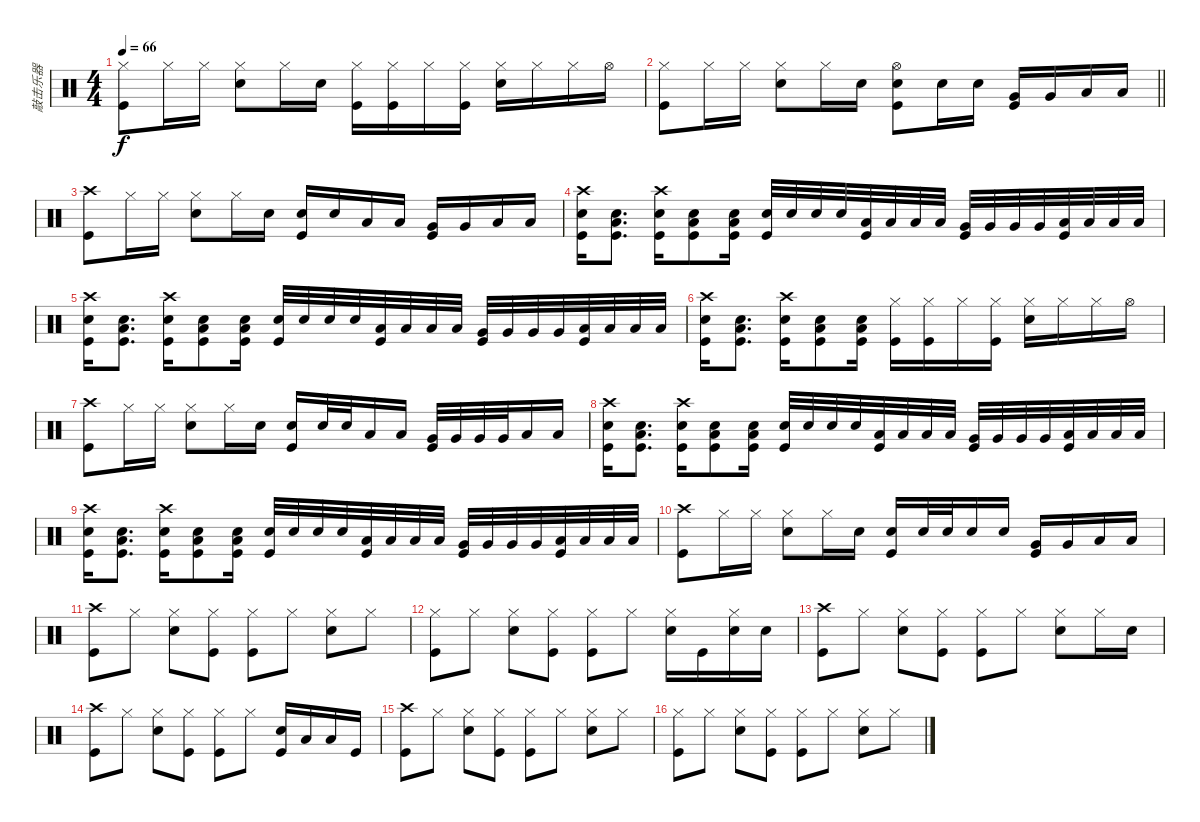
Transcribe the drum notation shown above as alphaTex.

\track ("敲击乐器" "敲击乐器") {instrument percussion}
\staff {score}
\articulation defaults
\ts (4 4)
\tempo 66
\clef neutral
\ks c
("Hi-Hat (closed)" "Kick (hit)").8{dy f} "Hi-Hat (closed)".16 "Hi-Hat (closed)".16 ("Snare (hit) 2" "Hi-Hat (closed)").8 "Hi-Hat (closed)".16 "Snare (hit) 2".16 ("Kick (hit)" "Hi-Hat (closed)").16 ("Kick (hit)" "Hi-Hat (closed)").16 "Hi-Hat (closed)".16 ("Kick (hit)" "Hi-Hat (closed)").16 ("Snare (hit) 2" "Hi-Hat (closed)").16 "Hi-Hat (closed)".16 "Hi-Hat (closed)".16 "Hi-Hat (open)".16 |
\barLineRight lightlight
("Hi-Hat (closed)" "Kick (hit)").8 "Hi-Hat (closed)".16 "Hi-Hat (closed)".16 ("Snare (hit) 2" "Hi-Hat (closed)").8 "Hi-Hat (closed)".16 "Snare (hit) 2".16 ("Snare (hit) 2" "Kick (hit)" "Hi-Hat (open)").8 "Snare (hit) 2".16 "Snare (hit) 2".16 ("Very Low Tom (hit)" "Kick (hit)").16 "Very Low Tom (hit)".16 "Low Floor Tom (hit)".16 "Low Floor Tom (hit)".16 |
("Crash high (hit)" "Kick (hit)").8 "Hi-Hat (closed)".16 "Hi-Hat (closed)".16 ("Snare (hit) 2" "Hi-Hat (closed)").8 "Hi-Hat (closed)".16 "Snare (hit) 2".16 ("Kick (hit)" "Snare (hit) 2").16 "Snare (hit) 2".16 "Low Tom (hit)".16 "Low Tom (hit)".16 ("Kick (hit)" "Very Low Tom (hit)").16 "Very Low Tom (hit)".16 "Low Floor Tom (hit)".16 "Low Floor Tom (hit)".16 |
("Kick (hit)" "Snare (hit) 2" "Crash high (hit)").16 ("Kick (hit)" "Snare (hit) 2" "Low Floor Tom (hit)").8{d} ("Kick (hit)" "Snare (hit) 2" "Crash high (hit)").16 ("Kick (hit)" "Snare (hit) 2" "Low Floor Tom (hit)").8 ("Kick (hit)" "Snare (hit) 2" "Low Floor Tom (hit)").16 ("Snare (hit) 2" "Kick (hit)").32 "Snare (hit) 2".32 "Snare (hit) 2".32 "Snare (hit) 2".32 ("Low Tom (hit)" "Kick (hit)").32 "Low Tom (hit)".32 "Low Tom (hit)".32 "Low Tom (hit)".32 ("Very Low Tom (hit)" "Kick (hit)").32 "Very Low Tom (hit)".32 "Very Low Tom (hit)".32 "Very Low Tom (hit)".32 ("Low Floor Tom (hit)" "Kick (hit)").32 "Low Floor Tom (hit)".32 "Low Floor Tom (hit)".32 "Low Floor Tom (hit)".32 |
("Kick (hit)" "Snare (hit) 2" "Crash high (hit)").16 ("Kick (hit)" "Snare (hit) 2" "Low Floor Tom (hit)").8{d} ("Kick (hit)" "Snare (hit) 2" "Crash high (hit)").16 ("Kick (hit)" "Snare (hit) 2" "Low Floor Tom (hit)").8 ("Kick (hit)" "Snare (hit) 2" "Low Floor Tom (hit)").16 ("Snare (hit) 2" "Kick (hit)").32 "Snare (hit) 2".32 "Snare (hit) 2".32 "Snare (hit) 2".32 ("Low Tom (hit)" "Kick (hit)").32 "Low Tom (hit)".32 "Low Tom (hit)".32 "Low Tom (hit)".32 ("Very Low Tom (hit)" "Kick (hit)").32 "Very Low Tom (hit)".32 "Very Low Tom (hit)".32 "Very Low Tom (hit)".32 ("Low Floor Tom (hit)" "Kick (hit)").32 "Low Floor Tom (hit)".32 "Low Floor Tom (hit)".32 "Low Floor Tom (hit)".32 |
("Kick (hit)" "Snare (hit) 2" "Crash high (hit)").16 ("Kick (hit)" "Snare (hit) 2" "Low Floor Tom (hit)").8{d} ("Kick (hit)" "Snare (hit) 2" "Crash high (hit)").16 ("Kick (hit)" "Snare (hit) 2" "Low Floor Tom (hit)").8 ("Kick (hit)" "Snare (hit) 2" "Low Floor Tom (hit)").16 ("Kick (hit)" "Hi-Hat (closed)").16 ("Kick (hit)" "Hi-Hat (closed)").16 "Hi-Hat (closed)".16 ("Kick (hit)" "Hi-Hat (closed)").16 ("Snare (hit) 2" "Hi-Hat (closed)").16 "Hi-Hat (closed)".16 "Hi-Hat (closed)".16 "Hi-Hat (open)".16 |
("Crash high (hit)" "Kick (hit)").8 "Hi-Hat (closed)".16 "Hi-Hat (closed)".16 ("Snare (hit) 2" "Hi-Hat (closed)").8 "Hi-Hat (closed)".16 "Snare (hit) 2".16 ("Snare (hit) 2" "Kick (hit)").16 "Snare (hit) 2".32 "Snare (hit) 2".32 "Low Tom (hit)".16 "Low Tom (hit)".16 ("Very Low Tom (hit)" "Kick (hit)").32 "Very Low Tom (hit)".32 "Very Low Tom (hit)".32 "Very Low Tom (hit)".32 "Low Floor Tom (hit)".16 "Low Floor Tom (hit)".16 |
("Kick (hit)" "Snare (hit) 2" "Crash high (hit)").16 ("Kick (hit)" "Snare (hit) 2" "Low Floor Tom (hit)").8{d} ("Kick (hit)" "Snare (hit) 2" "Crash high (hit)").16 ("Kick (hit)" "Snare (hit) 2" "Low Floor Tom (hit)").8 ("Kick (hit)" "Snare (hit) 2" "Low Floor Tom (hit)").16 ("Snare (hit) 2" "Kick (hit)").32 "Snare (hit) 2".32 "Snare (hit) 2".32 "Snare (hit) 2".32 ("Low Tom (hit)" "Kick (hit)").32 "Low Tom (hit)".32 "Low Tom (hit)".32 "Low Tom (hit)".32 ("Very Low Tom (hit)" "Kick (hit)").32 "Very Low Tom (hit)".32 "Very Low Tom (hit)".32 "Very Low Tom (hit)".32 ("Low Floor Tom (hit)" "Kick (hit)").32 "Low Floor Tom (hit)".32 "Low Floor Tom (hit)".32 "Low Floor Tom (hit)".32 |
("Kick (hit)" "Snare (hit) 2" "Crash high (hit)").16 ("Kick (hit)" "Snare (hit) 2" "Low Floor Tom (hit)").8{d} ("Kick (hit)" "Snare (hit) 2" "Crash high (hit)").16 ("Kick (hit)" "Snare (hit) 2" "Low Floor Tom (hit)").8 ("Kick (hit)" "Snare (hit) 2" "Low Floor Tom (hit)").16 ("Snare (hit) 2" "Kick (hit)").32 "Snare (hit) 2".32 "Snare (hit) 2".32 "Snare (hit) 2".32 ("Low Tom (hit)" "Kick (hit)").32 "Low Tom (hit)".32 "Low Tom (hit)".32 "Low Tom (hit)".32 ("Very Low Tom (hit)" "Kick (hit)").32 "Very Low Tom (hit)".32 "Very Low Tom (hit)".32 "Very Low Tom (hit)".32 ("Low Floor Tom (hit)" "Kick (hit)").32 "Low Floor Tom (hit)".32 "Low Floor Tom (hit)".32 "Low Floor Tom (hit)".32 |
("Crash high (hit)" "Kick (hit)").8 "Hi-Hat (closed)".16 "Hi-Hat (closed)".16 ("Snare (hit) 2" "Hi-Hat (closed)").8 "Hi-Hat (closed)".16 "Snare (hit) 2".16 ("Snare (hit) 2" "Kick (hit)").16 "Snare (hit) 2".32 "Snare (hit) 2".32 "Snare (hit) 2".16 "Snare (hit) 2".16 ("Kick (hit)" "Very Low Tom (hit)").16 "Very Low Tom (hit)".16 "Low Floor Tom (hit)".16 "Low Floor Tom (hit)".16 |
("Kick (hit)" "Crash high (hit)").8 "Hi-Hat (closed)".8 ("Snare (hit) 2" "Hi-Hat (closed)").8 ("Kick (hit)" "Hi-Hat (closed)").8 ("Kick (hit)" "Hi-Hat (closed)").8 "Hi-Hat (closed)".8 ("Snare (hit) 2" "Hi-Hat (closed)").8 "Hi-Hat (closed)".8 |
("Kick (hit)" "Hi-Hat (closed)").8 "Hi-Hat (closed)".8 ("Snare (hit) 2" "Hi-Hat (closed)").8 ("Kick (hit)" "Hi-Hat (closed)").8 ("Kick (hit)" "Hi-Hat (closed)").8 "Hi-Hat (closed)".8 ("Hi-Hat (closed)" "Snare (hit) 2").16 "Kick (hit)".16 ("Hi-Hat (closed)" "Snare (hit) 2").16 "Snare (hit) 2".16 |
("Kick (hit)" "Crash high (hit)").8 "Hi-Hat (closed)".8 ("Snare (hit) 2" "Hi-Hat (closed)").8 ("Kick (hit)" "Hi-Hat (closed)").8 ("Kick (hit)" "Hi-Hat (closed)").8 "Hi-Hat (closed)".8 ("Snare (hit) 2" "Hi-Hat (closed)").8 "Hi-Hat (closed)".16 "Snare (hit) 2".16 |
("Kick (hit)" "Crash high (hit)").8 "Hi-Hat (closed)".8 ("Snare (hit) 2" "Hi-Hat (closed)").8 ("Kick (hit)" "Hi-Hat (closed)").8 ("Kick (hit)" "Hi-Hat (closed)").8 "Hi-Hat (closed)".8 ("Snare (hit) 2" "Kick (hit)").16 "Low Tom (hit)".16 "Low Floor Tom (hit)".16 "Kick (hit)".16 |
("Kick (hit)" "Crash high (hit)").8 "Hi-Hat (closed)".8 ("Snare (hit) 2" "Hi-Hat (closed)").8 ("Kick (hit)" "Hi-Hat (closed)").8 ("Kick (hit)" "Hi-Hat (closed)").8 "Hi-Hat (closed)".8 ("Snare (hit) 2" "Hi-Hat (closed)").8 "Hi-Hat (closed)".8 |
("Kick (hit)" "Hi-Hat (closed)").8 "Hi-Hat (closed)".8 ("Snare (hit) 2" "Hi-Hat (closed)").8 ("Kick (hit)" "Hi-Hat (closed)").8 ("Kick (hit)" "Hi-Hat (closed)").8 "Hi-Hat (closed)".8 ("Snare (hit) 2" "Hi-Hat (closed)").8 "Hi-Hat (closed)".8
